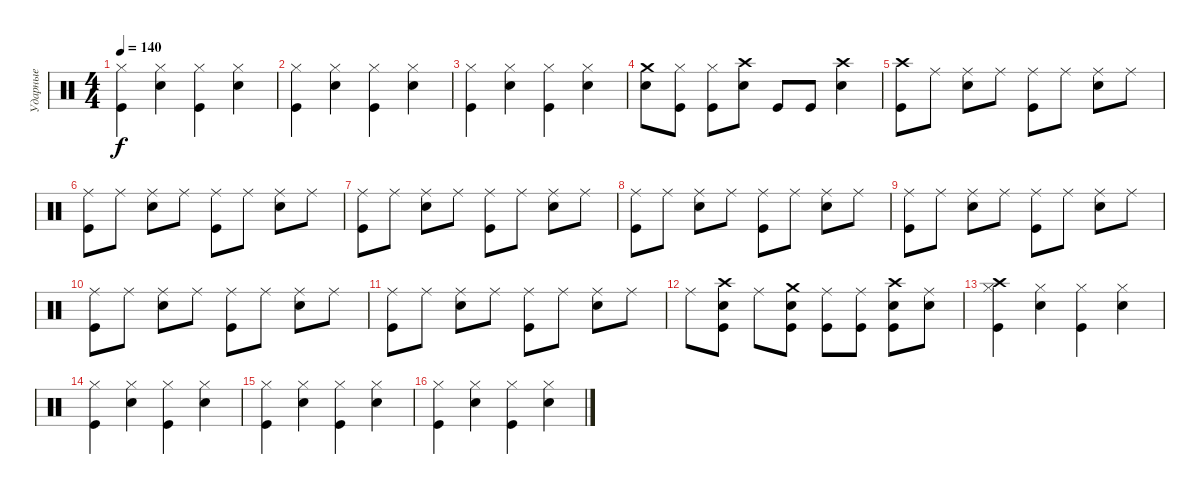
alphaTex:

\track ("Ударные" "Ударные") {instrument percussion}
\staff {score}
\articulation defaults
\ts (4 4)
\tempo 140
\clef neutral
\ks c
("Hi-Hat (closed)" "Kick (hit)").4{dy f} ("Hi-Hat (closed)" "Electric Snare (hit)").4 ("Hi-Hat (closed)" "Kick (hit)").4 ("Hi-Hat (closed)" "Electric Snare (hit)").4 |
("Hi-Hat (closed)" "Kick (hit)").4 ("Hi-Hat (closed)" "Electric Snare (hit)").4 ("Hi-Hat (closed)" "Kick (hit)").4 ("Hi-Hat (closed)" "Electric Snare (hit)").4 |
("Hi-Hat (closed)" "Kick (hit)").4 ("Hi-Hat (closed)" "Electric Snare (hit)").4 ("Hi-Hat (closed)" "Kick (hit)").4 ("Hi-Hat (closed)" "Electric Snare (hit)").4 |
("Crash medium (hit)" "Electric Snare (hit)").8 ("Hi-Hat (closed)" "Kick (hit)").8 ("Hi-Hat (closed)" "Kick (hit)").8 ("Crash high (hit)" "Electric Snare (hit)").8 "Kick (hit)".8 "Kick (hit)".8 ("Crash high (hit)" "Electric Snare (hit)").4 |
("Crash high (hit)" "Kick (hit)").8 "Ride (middle)".8 ("Ride (middle)" "Electric Snare (hit)").8 "Ride (middle)".8 ("Ride (middle)" "Kick (hit)").8 "Ride (middle)".8 ("Ride (middle)" "Electric Snare (hit)").8 "Ride (middle)".8 |
("Ride (middle)" "Kick (hit)").8 "Ride (middle)".8 ("Ride (middle)" "Electric Snare (hit)").8 "Ride (middle)".8 ("Ride (middle)" "Kick (hit)").8 "Ride (middle)".8 ("Ride (middle)" "Electric Snare (hit)").8 "Ride (middle)".8 |
("Ride (middle)" "Kick (hit)").8 "Ride (middle)".8 ("Ride (middle)" "Electric Snare (hit)").8 "Ride (middle)".8 ("Ride (middle)" "Kick (hit)").8 "Ride (middle)".8 ("Ride (middle)" "Electric Snare (hit)").8 "Ride (middle)".8 |
("Ride (middle)" "Kick (hit)").8 "Ride (middle)".8 ("Ride (middle)" "Electric Snare (hit)").8 "Ride (middle)".8 ("Ride (middle)" "Kick (hit)").8 "Ride (middle)".8 ("Ride (middle)" "Electric Snare (hit)").8 "Ride (middle)".8 |
("Ride (middle)" "Kick (hit)").8 "Ride (middle)".8 ("Ride (middle)" "Electric Snare (hit)").8 "Ride (middle)".8 ("Ride (middle)" "Kick (hit)").8 "Ride (middle)".8 ("Ride (middle)" "Electric Snare (hit)").8 "Ride (middle)".8 |
("Ride (middle)" "Kick (hit)").8 "Ride (middle)".8 ("Ride (middle)" "Electric Snare (hit)").8 "Ride (middle)".8 ("Ride (middle)" "Kick (hit)").8 "Ride (middle)".8 ("Ride (middle)" "Electric Snare (hit)").8 "Ride (middle)".8 |
("Ride (middle)" "Kick (hit)").8 "Ride (middle)".8 ("Ride (middle)" "Electric Snare (hit)").8 "Ride (middle)".8 ("Ride (middle)" "Kick (hit)").8 "Ride (middle)".8 ("Ride (middle)" "Electric Snare (hit)").8 "Ride (middle)".8 |
"Ride (middle)".8 ("Crash high (hit)" "Kick (hit)" "Electric Snare (hit)").8 "Ride (middle)".8 ("Crash medium (hit)" "Kick (hit)" "Electric Snare (hit)").8 ("Ride (middle)" "Kick (hit)").8 ("Ride (middle)" "Kick (hit)").8 ("Crash high (hit)" "Kick (hit)" "Electric Snare (hit)").8 ("Ride (middle)" "Electric Snare (hit)").8 |
("Crash high (hit)" "Hi-Hat (closed)" "Kick (hit)").4 ("Hi-Hat (closed)" "Electric Snare (hit)").4 ("Hi-Hat (closed)" "Kick (hit)").4 ("Hi-Hat (closed)" "Electric Snare (hit)").4 |
("Hi-Hat (closed)" "Kick (hit)").4 ("Hi-Hat (closed)" "Electric Snare (hit)").4 ("Hi-Hat (closed)" "Kick (hit)").4 ("Hi-Hat (closed)" "Electric Snare (hit)").4 |
("Hi-Hat (closed)" "Kick (hit)").4 ("Hi-Hat (closed)" "Electric Snare (hit)").4 ("Hi-Hat (closed)" "Kick (hit)").4 ("Hi-Hat (closed)" "Electric Snare (hit)").4 |
("Hi-Hat (closed)" "Kick (hit)").4 ("Hi-Hat (closed)" "Electric Snare (hit)").4 ("Hi-Hat (closed)" "Kick (hit)").4 ("Hi-Hat (closed)" "Electric Snare (hit)").4
